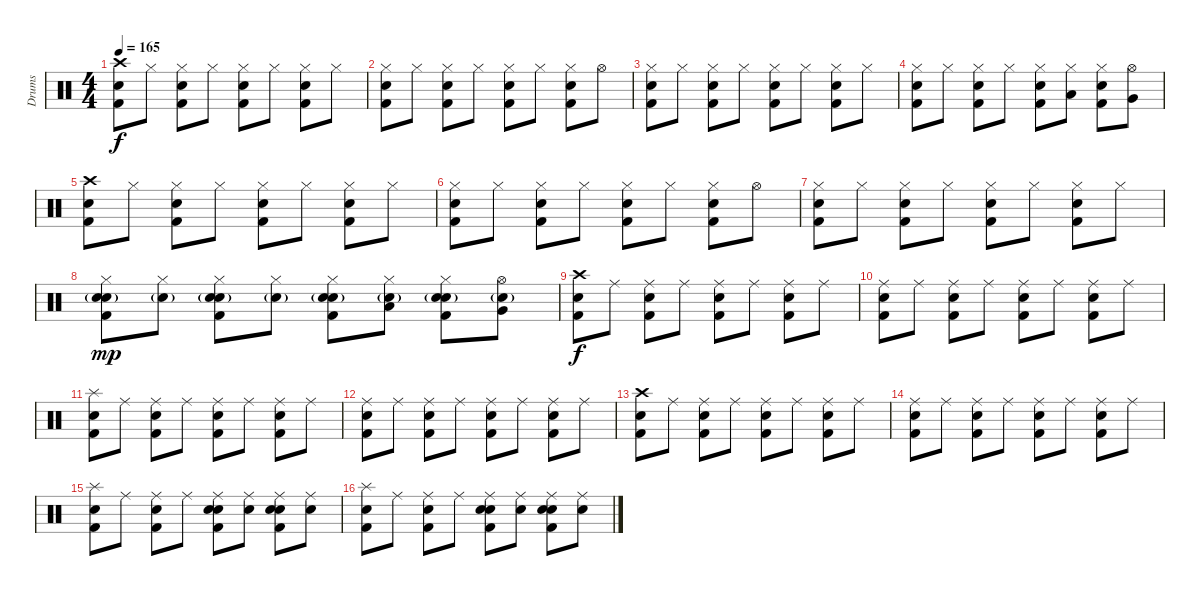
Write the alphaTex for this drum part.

\track ("Drums" "Drums") {instrument percussion}
\staff {score}
\articulation defaults
\ts (4 4)
\tempo 165
\clef neutral
\ks c
("Crash high (hit)" "Kick (hit) 2" "Electric Snare (hit)").8{dy f} "Hi-Hat (closed)".8 ("Hi-Hat (closed)" "Kick (hit) 2" "Electric Snare (hit)").8 "Hi-Hat (closed)".8 ("Hi-Hat (closed)" "Kick (hit) 2" "Electric Snare (hit)").8 "Hi-Hat (closed)".8 ("Hi-Hat (closed)" "Kick (hit) 2" "Electric Snare (hit)").8 "Hi-Hat (closed)".8 |
("Hi-Hat (closed)" "Kick (hit) 2" "Electric Snare (hit)").8 "Hi-Hat (closed)".8 ("Hi-Hat (closed)" "Kick (hit) 2" "Electric Snare (hit)").8 "Hi-Hat (closed)".8 ("Hi-Hat (closed)" "Kick (hit) 2" "Electric Snare (hit)").8 "Hi-Hat (closed)".8 ("Hi-Hat (closed)" "Kick (hit) 2" "Electric Snare (hit)").8 "Hi-Hat (open)".8 |
("Hi-Hat (closed)" "Kick (hit) 2" "Electric Snare (hit)").8 "Hi-Hat (closed)".8 ("Hi-Hat (closed)" "Kick (hit) 2" "Electric Snare (hit)").8 "Hi-Hat (closed)".8 ("Hi-Hat (closed)" "Kick (hit) 2" "Electric Snare (hit)").8 "Hi-Hat (closed)".8 ("Hi-Hat (closed)" "Kick (hit) 2" "Electric Snare (hit)").8 "Hi-Hat (closed)".8 |
("Hi-Hat (closed)" "Kick (hit) 2" "Electric Snare (hit)").8 "Hi-Hat (closed)".8 ("Hi-Hat (closed)" "Kick (hit) 2" "Electric Snare (hit)").8 "Hi-Hat (closed)".8 ("Hi-Hat (closed)" "Kick (hit) 2" "Electric Snare (hit)").8 ("Hi-Hat (closed)" "Low Floor Tom (hit)").8 ("Hi-Hat (closed)" "Kick (hit) 2" "Electric Snare (hit)").8 ("Hi-Hat (open)" "Very Low Tom (hit)").8 |
("Crash high (hit)" "Kick (hit) 2" "Electric Snare (hit)").8 "Hi-Hat (closed)".8 ("Hi-Hat (closed)" "Kick (hit) 2" "Electric Snare (hit)").8 "Hi-Hat (closed)".8 ("Hi-Hat (closed)" "Kick (hit) 2" "Electric Snare (hit)").8 "Hi-Hat (closed)".8 ("Hi-Hat (closed)" "Kick (hit) 2" "Electric Snare (hit)").8 "Hi-Hat (closed)".8 |
("Hi-Hat (closed)" "Kick (hit) 2" "Electric Snare (hit)").8 "Hi-Hat (closed)".8 ("Hi-Hat (closed)" "Kick (hit) 2" "Electric Snare (hit)").8 "Hi-Hat (closed)".8 ("Hi-Hat (closed)" "Kick (hit) 2" "Electric Snare (hit)").8 "Hi-Hat (closed)".8 ("Hi-Hat (closed)" "Kick (hit) 2" "Electric Snare (hit)").8 "Hi-Hat (open)".8 |
("Hi-Hat (closed)" "Kick (hit) 2" "Electric Snare (hit)").8 "Hi-Hat (closed)".8 ("Hi-Hat (closed)" "Kick (hit) 2" "Electric Snare (hit)").8 "Hi-Hat (closed)".8 ("Hi-Hat (closed)" "Kick (hit) 2" "Electric Snare (hit)").8 "Hi-Hat (closed)".8 ("Hi-Hat (closed)" "Kick (hit) 2" "Electric Snare (hit)").8 "Hi-Hat (closed)".8 |
("Hi-Hat (closed)" "Kick (hit) 2" "Electric Snare (hit)" "Snare (hit) 2"{g}).8{dy mp} ("Hi-Hat (closed)" "Snare (hit) 2"{g}).8 ("Hi-Hat (closed)" "Kick (hit) 2" "Electric Snare (hit)" "Snare (hit) 2"{g}).8 ("Hi-Hat (closed)" "Snare (hit) 2"{g}).8 ("Hi-Hat (closed)" "Kick (hit) 2" "Electric Snare (hit)" "Snare (hit) 2"{g}).8 ("Hi-Hat (closed)" "Snare (hit) 2"{g} "Low Floor Tom (hit)").8 ("Hi-Hat (closed)" "Kick (hit) 2" "Electric Snare (hit)" "Snare (hit) 2"{g}).8 ("Hi-Hat (open)" "Snare (hit) 2"{g} "Very Low Tom (hit)").8 |
("Crash high (hit)" "Kick (hit) 2" "Electric Snare (hit)").8{dy f} "Ride (middle)".8 ("Ride (middle)" "Kick (hit) 2" "Electric Snare (hit)").8 "Ride (middle)".8 ("Ride (middle)" "Kick (hit) 2" "Electric Snare (hit)").8 "Ride (middle)".8 ("Ride (middle)" "Kick (hit) 2" "Electric Snare (hit)").8 "Ride (middle)".8 |
("Ride (middle)" "Kick (hit) 2" "Electric Snare (hit)").8 "Ride (middle)".8 ("Ride (middle)" "Kick (hit) 2" "Electric Snare (hit)").8 "Ride (middle)".8 ("Ride (middle)" "Kick (hit) 2" "Electric Snare (hit)").8 "Ride (middle)".8 ("Ride (middle)" "Kick (hit) 2" "Electric Snare (hit)").8 "Ride (middle)".8 |
("Splash (hit)" "Kick (hit) 2" "Electric Snare (hit)").8 "Ride (middle)".8 ("Ride (middle)" "Kick (hit) 2" "Electric Snare (hit)").8 "Ride (middle)".8 ("Ride (middle)" "Kick (hit) 2" "Electric Snare (hit)").8 "Ride (middle)".8 ("Ride (middle)" "Kick (hit) 2" "Electric Snare (hit)").8 "Ride (middle)".8 |
("Ride (middle)" "Kick (hit) 2" "Electric Snare (hit)").8 "Ride (middle)".8 ("Ride (middle)" "Kick (hit) 2" "Electric Snare (hit)").8 "Ride (middle)".8 ("Ride (middle)" "Kick (hit) 2" "Electric Snare (hit)").8 "Ride (middle)".8 ("Ride (middle)" "Kick (hit) 2" "Electric Snare (hit)").8 "Ride (middle)".8 |
("Crash high (hit)" "Kick (hit) 2" "Electric Snare (hit)").8 "Ride (middle)".8 ("Ride (middle)" "Kick (hit) 2" "Electric Snare (hit)").8 "Ride (middle)".8 ("Ride (middle)" "Kick (hit) 2" "Electric Snare (hit)").8 "Ride (middle)".8 ("Ride (middle)" "Kick (hit) 2" "Electric Snare (hit)").8 "Ride (middle)".8 |
("Ride (middle)" "Kick (hit) 2" "Electric Snare (hit)").8 "Ride (middle)".8 ("Ride (middle)" "Kick (hit) 2" "Electric Snare (hit)").8 "Ride (middle)".8 ("Ride (middle)" "Kick (hit) 2" "Electric Snare (hit)").8 "Ride (middle)".8 ("Ride (middle)" "Kick (hit) 2" "Electric Snare (hit)").8 "Ride (middle)".8 |
("Splash (hit)" "Kick (hit) 2" "Electric Snare (hit)").8 "Ride (middle)".8 ("Ride (middle)" "Kick (hit) 2" "Electric Snare (hit)").8 "Ride (middle)".8 ("Ride (middle)" "Kick (hit) 2" "Electric Snare (hit)" "Electric Snare (hit)").8 ("Ride (middle)" "Electric Snare (hit)").8 ("Ride (middle)" "Kick (hit) 2" "Electric Snare (hit)" "Electric Snare (hit)").8 ("Ride (middle)" "Electric Snare (hit)").8 |
("Splash (hit)" "Kick (hit) 2" "Electric Snare (hit)").8 "Ride (middle)".8 ("Ride (middle)" "Kick (hit) 2" "Electric Snare (hit)").8 "Ride (middle)".8 ("Ride (middle)" "Kick (hit) 2" "Electric Snare (hit)" "Electric Snare (hit)").8 ("Ride (middle)" "Electric Snare (hit)").8 ("Ride (middle)" "Kick (hit) 2" "Electric Snare (hit)" "Electric Snare (hit)").8 ("Ride (middle)" "Electric Snare (hit)").8
